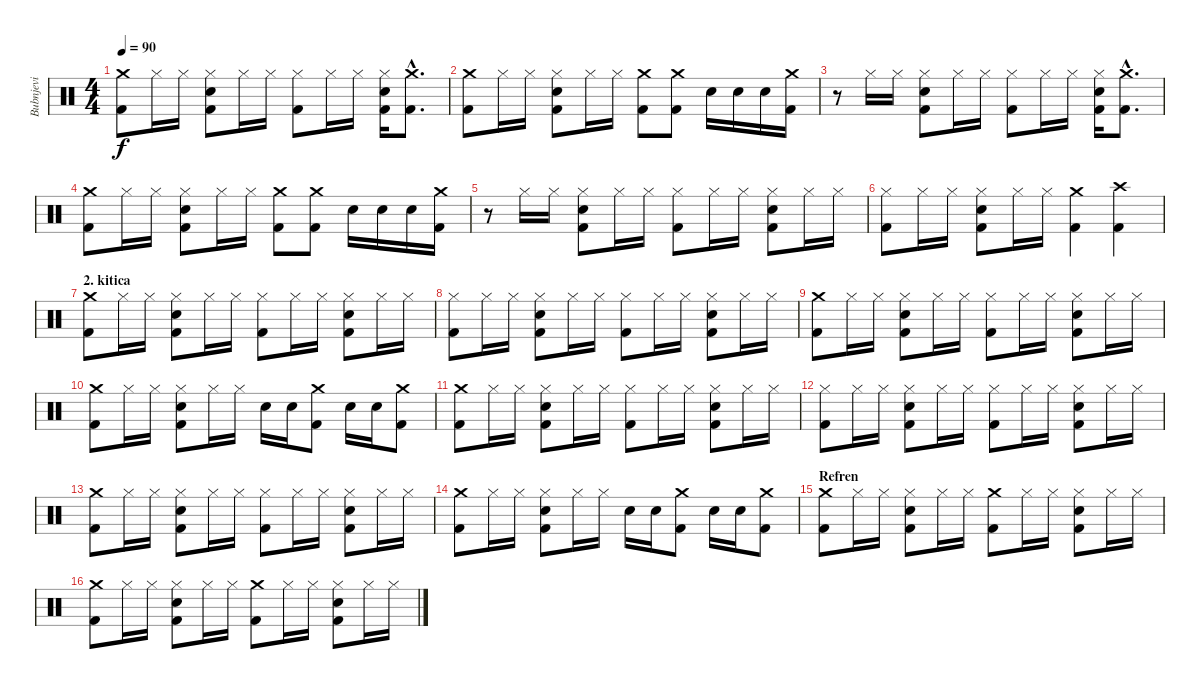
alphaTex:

\track ("Bubnjevi" "Bubnjevi") {instrument percussion}
\staff {score}
\articulation defaults
\ts (4 4)
\tempo 90
\clef neutral
\ks c
("Crash medium (hit)" "Kick (hit) 2").8{dy f} "Hi-Hat (closed)".16 "Hi-Hat (closed)".16 ("Snare (hit) 2" "Hi-Hat (closed)" "Kick (hit) 2").8 "Hi-Hat (closed)".16 "Hi-Hat (closed)".16 ("Hi-Hat (closed)" "Kick (hit) 2").8 "Hi-Hat (closed)".16 "Hi-Hat (closed)".16 ("Snare (hit) 2" "Hi-Hat (closed)" "Kick (hit) 2").16 ("Crash medium (hit)"{hac} "Kick (hit) 2"{hac}).8{d} |
("Crash medium (hit)" "Kick (hit) 2").8 "Hi-Hat (closed)".16 "Hi-Hat (closed)".16 ("Snare (hit) 2" "Hi-Hat (closed)" "Kick (hit) 2").8 "Hi-Hat (closed)".16 "Hi-Hat (closed)".16 ("Crash medium (hit)" "Kick (hit) 2").8 ("Crash medium (hit)" "Kick (hit) 2").8 "Snare (hit) 2".16 "Snare (hit) 2".16 "Snare (hit) 2".16 ("Crash medium (hit)" "Kick (hit) 2").16 |
r.8 "Hi-Hat (closed)".16 "Hi-Hat (closed)".16 ("Snare (hit) 2" "Hi-Hat (closed)" "Kick (hit) 2").8 "Hi-Hat (closed)".16 "Hi-Hat (closed)".16 ("Hi-Hat (closed)" "Kick (hit) 2").8 "Hi-Hat (closed)".16 "Hi-Hat (closed)".16 ("Snare (hit) 2" "Hi-Hat (closed)" "Kick (hit) 2").16 ("Crash medium (hit)"{hac} "Kick (hit) 2"{hac}).8{d} |
("Crash medium (hit)" "Kick (hit) 2").8 "Hi-Hat (closed)".16 "Hi-Hat (closed)".16 ("Snare (hit) 2" "Hi-Hat (closed)" "Kick (hit) 2").8 "Hi-Hat (closed)".16 "Hi-Hat (closed)".16 ("Crash medium (hit)" "Kick (hit) 2").8 ("Crash medium (hit)" "Kick (hit) 2").8 "Snare (hit) 2".16 "Snare (hit) 2".16 "Snare (hit) 2".16 ("Crash medium (hit)" "Kick (hit) 2").16 |
r.8 "Hi-Hat (closed)".16 "Hi-Hat (closed)".16 ("Snare (hit) 2" "Hi-Hat (closed)" "Kick (hit) 2").8 "Hi-Hat (closed)".16 "Hi-Hat (closed)".16 ("Hi-Hat (closed)" "Kick (hit) 2").8 "Hi-Hat (closed)".16 "Hi-Hat (closed)".16 ("Snare (hit) 2" "Hi-Hat (closed)" "Kick (hit) 2").8 "Hi-Hat (closed)".16 "Hi-Hat (closed)".16 |
("Hi-Hat (closed)" "Kick (hit) 2").8 "Hi-Hat (closed)".16 "Hi-Hat (closed)".16 ("Snare (hit) 2" "Hi-Hat (closed)" "Kick (hit) 2").8 "Hi-Hat (closed)".16 "Hi-Hat (closed)".16 ("Crash medium (hit)" "Kick (hit) 2").4 ("Crash high (hit)" "Kick (hit) 2").4 |
\section ("" "2. kitica")
("Crash medium (hit)" "Kick (hit) 2").8 "Hi-Hat (closed)".16 "Hi-Hat (closed)".16 ("Snare (hit) 2" "Hi-Hat (closed)" "Kick (hit) 2").8 "Hi-Hat (closed)".16 "Hi-Hat (closed)".16 ("Hi-Hat (closed)" "Kick (hit) 2").8 "Hi-Hat (closed)".16 "Hi-Hat (closed)".16 ("Snare (hit) 2" "Hi-Hat (closed)" "Kick (hit) 2").8 "Hi-Hat (closed)".16 "Hi-Hat (closed)".16 |
("Hi-Hat (closed)" "Kick (hit) 2").8 "Hi-Hat (closed)".16 "Hi-Hat (closed)".16 ("Snare (hit) 2" "Hi-Hat (closed)" "Kick (hit) 2").8 "Hi-Hat (closed)".16 "Hi-Hat (closed)".16 ("Hi-Hat (closed)" "Kick (hit) 2").8 "Hi-Hat (closed)".16 "Hi-Hat (closed)".16 ("Snare (hit) 2" "Hi-Hat (closed)" "Kick (hit) 2").8 "Hi-Hat (closed)".16 "Hi-Hat (closed)".16 |
("Crash medium (hit)" "Kick (hit) 2").8 "Hi-Hat (closed)".16 "Hi-Hat (closed)".16 ("Snare (hit) 2" "Hi-Hat (closed)" "Kick (hit) 2").8 "Hi-Hat (closed)".16 "Hi-Hat (closed)".16 ("Hi-Hat (closed)" "Kick (hit) 2").8 "Hi-Hat (closed)".16 "Hi-Hat (closed)".16 ("Snare (hit) 2" "Hi-Hat (closed)" "Kick (hit) 2").8 "Hi-Hat (closed)".16 "Hi-Hat (closed)".16 |
("Crash medium (hit)" "Kick (hit) 2").8 "Hi-Hat (closed)".16 "Hi-Hat (closed)".16 ("Snare (hit) 2" "Hi-Hat (closed)" "Kick (hit) 2").8 "Hi-Hat (closed)".16 "Hi-Hat (closed)".16 "Snare (hit) 2".16 "Snare (hit) 2".16 ("Crash medium (hit)" "Kick (hit) 2").8 "Snare (hit) 2".16 "Snare (hit) 2".16 ("Crash medium (hit)" "Kick (hit) 2").8 |
("Crash medium (hit)" "Kick (hit) 2").8 "Hi-Hat (closed)".16 "Hi-Hat (closed)".16 ("Snare (hit) 2" "Hi-Hat (closed)" "Kick (hit) 2").8 "Hi-Hat (closed)".16 "Hi-Hat (closed)".16 ("Hi-Hat (closed)" "Kick (hit) 2").8 "Hi-Hat (closed)".16 "Hi-Hat (closed)".16 ("Snare (hit) 2" "Hi-Hat (closed)" "Kick (hit) 2").8 "Hi-Hat (closed)".16 "Hi-Hat (closed)".16 |
("Hi-Hat (closed)" "Kick (hit) 2").8 "Hi-Hat (closed)".16 "Hi-Hat (closed)".16 ("Snare (hit) 2" "Hi-Hat (closed)" "Kick (hit) 2").8 "Hi-Hat (closed)".16 "Hi-Hat (closed)".16 ("Hi-Hat (closed)" "Kick (hit) 2").8 "Hi-Hat (closed)".16 "Hi-Hat (closed)".16 ("Snare (hit) 2" "Hi-Hat (closed)" "Kick (hit) 2").8 "Hi-Hat (closed)".16 "Hi-Hat (closed)".16 |
("Crash medium (hit)" "Kick (hit) 2").8 "Hi-Hat (closed)".16 "Hi-Hat (closed)".16 ("Snare (hit) 2" "Hi-Hat (closed)" "Kick (hit) 2").8 "Hi-Hat (closed)".16 "Hi-Hat (closed)".16 ("Hi-Hat (closed)" "Kick (hit) 2").8 "Hi-Hat (closed)".16 "Hi-Hat (closed)".16 ("Snare (hit) 2" "Hi-Hat (closed)" "Kick (hit) 2").8 "Hi-Hat (closed)".16 "Hi-Hat (closed)".16 |
("Crash medium (hit)" "Kick (hit) 2").8 "Hi-Hat (closed)".16 "Hi-Hat (closed)".16 ("Snare (hit) 2" "Hi-Hat (closed)" "Kick (hit) 2").8 "Hi-Hat (closed)".16 "Hi-Hat (closed)".16 "Snare (hit) 2".16 "Snare (hit) 2".16 ("Crash medium (hit)" "Kick (hit) 2").8 "Snare (hit) 2".16 "Snare (hit) 2".16 ("Crash medium (hit)" "Kick (hit) 2").8 |
\section ("" "Refren")
("Crash medium (hit)" "Kick (hit) 2").8 "Hi-Hat (closed)".16 "Hi-Hat (closed)".16 ("Snare (hit) 2" "Hi-Hat (closed)" "Kick (hit) 2").8 "Hi-Hat (closed)".16 "Hi-Hat (closed)".16 ("Crash medium (hit)" "Kick (hit) 2").8 "Hi-Hat (closed)".16 "Hi-Hat (closed)".16 ("Snare (hit) 2" "Hi-Hat (closed)" "Kick (hit) 2").8 "Hi-Hat (closed)".16 "Hi-Hat (closed)".16 |
("Crash medium (hit)" "Kick (hit) 2").8 "Hi-Hat (closed)".16 "Hi-Hat (closed)".16 ("Snare (hit) 2" "Hi-Hat (closed)" "Kick (hit) 2").8 "Hi-Hat (closed)".16 "Hi-Hat (closed)".16 ("Crash medium (hit)" "Kick (hit) 2").8 "Hi-Hat (closed)".16 "Hi-Hat (closed)".16 ("Snare (hit) 2" "Hi-Hat (closed)" "Kick (hit) 2").8 "Hi-Hat (closed)".16 "Hi-Hat (closed)".16
